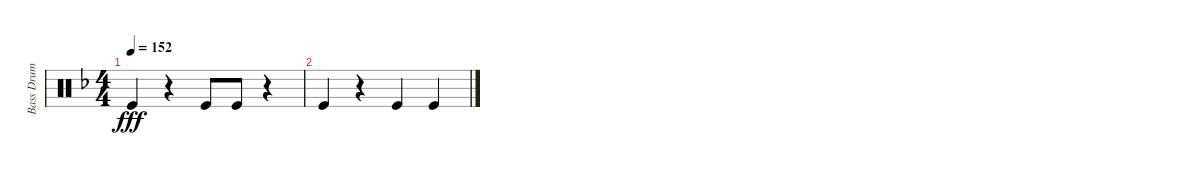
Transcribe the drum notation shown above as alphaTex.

\track ("Bass Drum" "Bass Drum") {instrument percussion}
\staff {score}
\articulation defaults
\ts (4 4)
\tempo 152
\clef neutral
\ks f "Kick (hit)".4{dy fff}
r.4 "Kick (hit)".8 "Kick (hit)".8 r.4 |
"Kick (hit)".4 r.4 "Kick (hit)".4 "Kick (hit)".4
